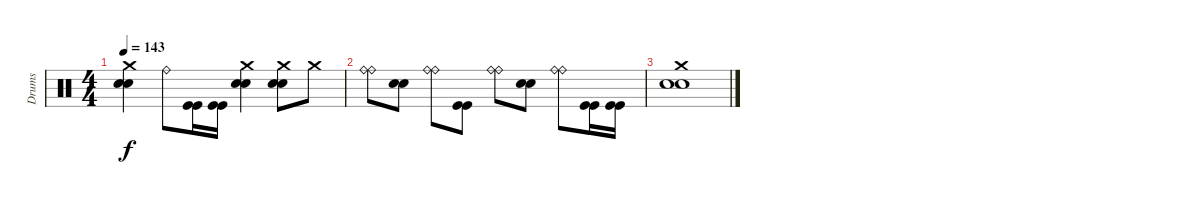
\track ("Drums" "Drums") {instrument percussion}
\staff {score}
\articulation defaults
\ts (4 4)
\tempo 143
\clef neutral
\ks c
("Crash medium (hit)" "Electric Snare (hit)" "Electric Snare (hit)").4{dy f} "Ride (bell)".8 ("Kick (hit)" "Kick (hit)").16 ("Kick (hit)" "Kick (hit)").16 ("Crash medium (hit)" "Electric Snare (hit)" "Electric Snare (hit)").4 ("Crash medium (hit)" "Electric Snare (hit)" "Electric Snare (hit)").8 "Crash medium (hit)".8 |
("Ride (bell)" "Ride (bell)").8 ("Electric Snare (hit)" "Electric Snare (hit)").8 ("Ride (bell)" "Ride (bell)").8 ("Kick (hit)" "Kick (hit)").8 ("Ride (bell)" "Ride (bell)").8 ("Electric Snare (hit)" "Electric Snare (hit)").8 ("Ride (bell)" "Ride (bell)").8 ("Kick (hit)" "Kick (hit)").16 ("Kick (hit)" "Kick (hit)").16 |
("Crash medium (hit)" "Electric Snare (hit)" "Electric Snare (hit)").1
